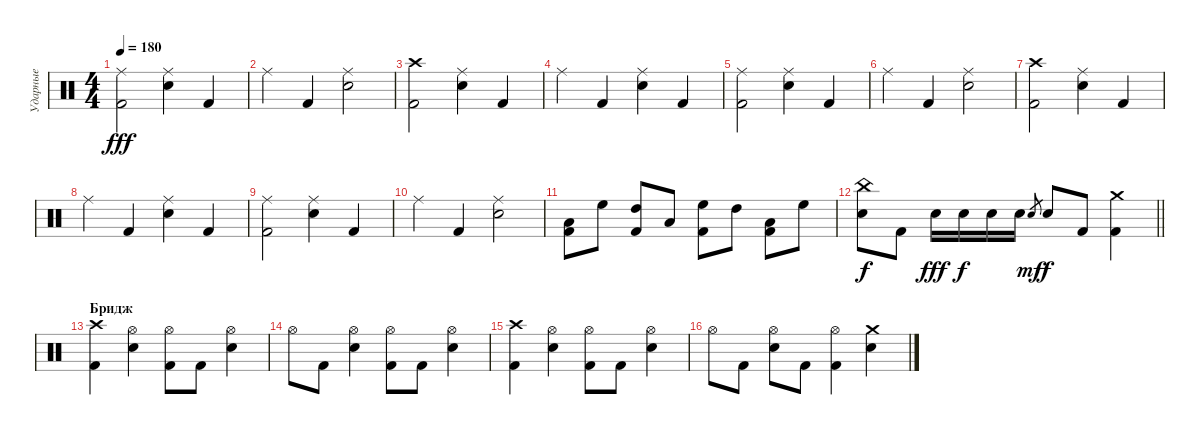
\track ("Ударные" "Ударные") {instrument percussion}
\staff {score}
\articulation defaults
\ts (4 4)
\tempo 180
\clef neutral
\ks c
("Ride (middle)" "Kick (hit) 2").2{dy fff} ("Ride (middle)" "Snare (hit) 2").4 "Kick (hit) 2".4 |
"Ride (middle)".4 "Kick (hit) 2".4 ("Ride (middle)" "Snare (hit) 2").2 |
("Crash high (hit)" "Kick (hit) 2").2 ("Ride (middle)" "Snare (hit) 2").4 "Kick (hit) 2".4 |
"Ride (middle)".4 "Kick (hit) 2".4 ("Ride (middle)" "Snare (hit) 2").4 "Kick (hit) 2".4 |
("Ride (middle)" "Kick (hit) 2").2 ("Ride (middle)" "Snare (hit) 2").4 "Kick (hit) 2".4 |
"Ride (middle)".4 "Kick (hit) 2".4 ("Ride (middle)" "Snare (hit) 2").2 |
("Crash high (hit)" "Kick (hit) 2").2 ("Ride (middle)" "Snare (hit) 2").4 "Kick (hit) 2".4 |
"Ride (middle)".4 "Kick (hit) 2".4 ("Ride (middle)" "Snare (hit) 2").4 "Kick (hit) 2".4 |
("Ride (middle)" "Kick (hit) 2").2 ("Ride (middle)" "Snare (hit) 2").4 "Kick (hit) 2".4 |
"Ride (middle)".4 "Kick (hit) 2".4 ("Ride (middle)" "Snare (hit) 2").2 |
("Low Floor Tom (hit)" "Kick (hit) 2").8 "High Floor Tom (hit)".8 ("High Tom (hit)" "Kick (hit) 2").8 "Low Tom (hit)".8 ("High Floor Tom (hit)" "Kick (hit) 2").8 "High Tom (hit)".8 ("Low Tom (hit)" "Kick (hit) 2").8 "High Floor Tom (hit)".8 |
\barLineRight lightlight
("China (hit)" "Snare (hit) 2").8{dy f} "Kick (hit) 2".8 "Snare (hit) 2".16{dy fff} "Snare (hit) 2".16{dy f} "Snare (hit) 2".16 "Snare (hit) 2".16 "Snare (hit) 2".8{gr dy mf} "Snare (hit) 2".8{dy f} "Kick (hit) 2".8 ("Crash medium (hit)" "Kick (hit) 2").4 |
\section ("" "Бридж")
("Crash high (hit)" "Kick (hit) 2").4 ("Hi-Hat (open)" "Snare (hit) 2").4 ("Hi-Hat (open)" "Kick (hit) 2").8 "Kick (hit) 2".8 ("Hi-Hat (open)" "Snare (hit) 2").4 |
"Hi-Hat (open)".8 "Kick (hit) 2".8 ("Hi-Hat (open)" "Snare (hit) 2").4 ("Hi-Hat (open)" "Kick (hit) 2").8 "Kick (hit) 2".8 ("Hi-Hat (open)" "Snare (hit) 2").4 |
("Crash high (hit)" "Kick (hit) 2").4 ("Hi-Hat (open)" "Snare (hit) 2").4 ("Hi-Hat (open)" "Kick (hit) 2").8 "Kick (hit) 2".8 ("Hi-Hat (open)" "Snare (hit) 2").4 |
"Hi-Hat (open)".8 "Kick (hit) 2".8 ("Hi-Hat (open)" "Snare (hit) 2").8 "Kick (hit) 2".8 ("Hi-Hat (open)" "Kick (hit) 2").4 ("Crash medium (hit)" "Snare (hit) 2").4
